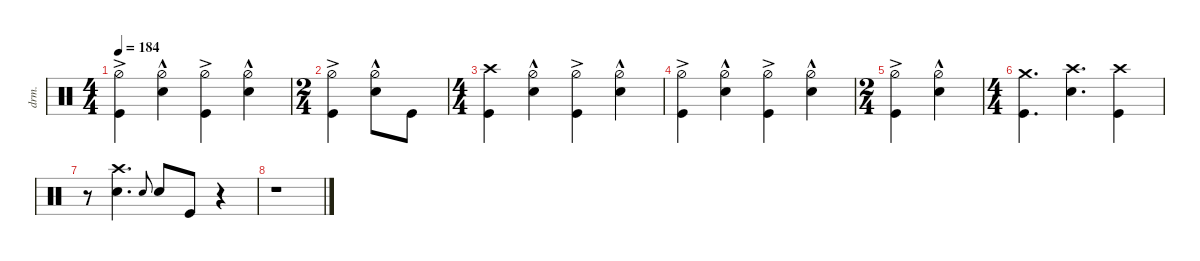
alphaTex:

\defaultSystemsLayout 4
\hideDynamics
\bracketExtendMode nobrackets
\otherSystemsTrackNameOrientation horizontal
\track ("Drums" "drm.") {defaultSystemsLayout 4 multiBarRest instrument percussion}
\staff {score}
\articulation defaults
\ts (4 4)
\tempo 184
\clef neutral
\ks c
("Hi-Hat (half)"{ac} "Kick (hit)").4{dy f} ("Hi-Hat (half)"{hac} "Snare (hit) 2").4 ("Hi-Hat (half)"{ac} "Kick (hit)").4 ("Hi-Hat (half)"{hac} "Snare (hit) 2").4 |
\ts (2 4)
\beaming (8 2 2 2 2)
("Hi-Hat (half)"{ac} "Kick (hit)").4 ("Hi-Hat (half)"{hac} "Snare (hit) 2").8 "Kick (hit)".8 |
\ts (4 4)
\beaming (8 2 2 2 2)
("Crash high (hit)" "Kick (hit)").4 ("Hi-Hat (half)"{hac} "Snare (hit) 2").4 ("Hi-Hat (half)"{ac} "Kick (hit)").4 ("Hi-Hat (half)"{hac} "Snare (hit) 2").4 |
("Hi-Hat (half)"{ac} "Kick (hit)").4 ("Hi-Hat (half)"{hac} "Snare (hit) 2").4 ("Hi-Hat (half)"{ac} "Kick (hit)").4 ("Hi-Hat (half)"{hac} "Snare (hit) 2").4 |
\ts (2 4)
\beaming (8 2 2 2 2)
("Hi-Hat (half)"{ac} "Kick (hit)").4 ("Hi-Hat (half)"{hac} "Snare (hit) 2").4 |
\ts (4 4)
\beaming (8 2 2 2 2)
("Crash medium (hit)" "Kick (hit)").4{d} ("Snare (hit) 2" "Crash high (hit)").4{d} ("Crash high (hit)" "Kick (hit)").4 |
r.8 ("Snare (hit) 2" "Crash high (hit)").4{d} "Snare (hit) 2".8{gr onbeat} "Snare (hit) 2".8 "Kick (hit)".8 r.4 |
r.1
